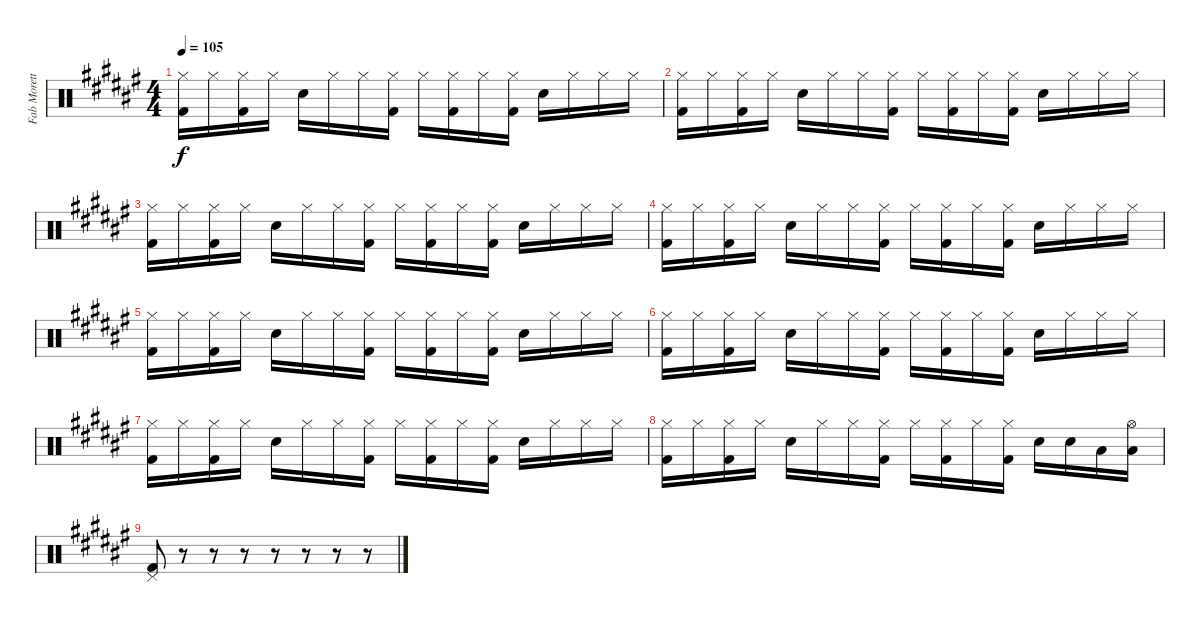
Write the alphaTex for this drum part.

\track ("Fab Moretti - Drums" "Fab Morett") {instrument percussion}
\staff {score}
\articulation defaults
\ts (4 4)
\tempo 105
\clef neutral
\ks f#
("Hi-Hat (closed)" "Kick (hit) 2").16{dy f} "Hi-Hat (closed)".16 ("Hi-Hat (closed)" "Kick (hit) 2").16 "Hi-Hat (closed)".16 "Snare (hit) 2".16 "Hi-Hat (closed)".16 "Hi-Hat (closed)".16 ("Hi-Hat (closed)" "Kick (hit) 2").16 "Hi-Hat (closed)".16 ("Hi-Hat (closed)" "Kick (hit) 2").16 "Hi-Hat (closed)".16 ("Hi-Hat (closed)" "Kick (hit) 2").16 "Snare (hit) 2".16 "Hi-Hat (closed)".16 "Hi-Hat (closed)".16 "Hi-Hat (closed)".16 |
("Hi-Hat (closed)" "Kick (hit) 2").16 "Hi-Hat (closed)".16 ("Hi-Hat (closed)" "Kick (hit) 2").16 "Hi-Hat (closed)".16 "Snare (hit) 2".16 "Hi-Hat (closed)".16 "Hi-Hat (closed)".16 ("Hi-Hat (closed)" "Kick (hit) 2").16 "Hi-Hat (closed)".16 ("Hi-Hat (closed)" "Kick (hit) 2").16 "Hi-Hat (closed)".16 ("Hi-Hat (closed)" "Kick (hit) 2").16 "Snare (hit) 2".16 "Hi-Hat (closed)".16 "Hi-Hat (closed)".16 "Hi-Hat (closed)".16 |
("Hi-Hat (closed)" "Kick (hit) 2").16 "Hi-Hat (closed)".16 ("Hi-Hat (closed)" "Kick (hit) 2").16 "Hi-Hat (closed)".16 "Snare (hit) 2".16 "Hi-Hat (closed)".16 "Hi-Hat (closed)".16 ("Hi-Hat (closed)" "Kick (hit) 2").16 "Hi-Hat (closed)".16 ("Hi-Hat (closed)" "Kick (hit) 2").16 "Hi-Hat (closed)".16 ("Hi-Hat (closed)" "Kick (hit) 2").16 "Snare (hit) 2".16 "Hi-Hat (closed)".16 "Hi-Hat (closed)".16 "Hi-Hat (closed)".16 |
("Hi-Hat (closed)" "Kick (hit) 2").16 "Hi-Hat (closed)".16 ("Hi-Hat (closed)" "Kick (hit) 2").16 "Hi-Hat (closed)".16 "Snare (hit) 2".16 "Hi-Hat (closed)".16 "Hi-Hat (closed)".16 ("Hi-Hat (closed)" "Kick (hit) 2").16 "Hi-Hat (closed)".16 ("Hi-Hat (closed)" "Kick (hit) 2").16 "Hi-Hat (closed)".16 ("Hi-Hat (closed)" "Kick (hit) 2").16 "Snare (hit) 2".16 "Hi-Hat (closed)".16 "Hi-Hat (closed)".16 "Hi-Hat (closed)".16 |
("Hi-Hat (closed)" "Kick (hit) 2").16 "Hi-Hat (closed)".16 ("Hi-Hat (closed)" "Kick (hit) 2").16 "Hi-Hat (closed)".16 "Snare (hit) 2".16 "Hi-Hat (closed)".16 "Hi-Hat (closed)".16 ("Hi-Hat (closed)" "Kick (hit) 2").16 "Hi-Hat (closed)".16 ("Hi-Hat (closed)" "Kick (hit) 2").16 "Hi-Hat (closed)".16 ("Hi-Hat (closed)" "Kick (hit) 2").16 "Snare (hit) 2".16 "Hi-Hat (closed)".16 "Hi-Hat (closed)".16 "Hi-Hat (closed)".16 |
("Hi-Hat (closed)" "Kick (hit) 2").16 "Hi-Hat (closed)".16 ("Hi-Hat (closed)" "Kick (hit) 2").16 "Hi-Hat (closed)".16 "Snare (hit) 2".16 "Hi-Hat (closed)".16 "Hi-Hat (closed)".16 ("Hi-Hat (closed)" "Kick (hit) 2").16 "Hi-Hat (closed)".16 ("Hi-Hat (closed)" "Kick (hit) 2").16 "Hi-Hat (closed)".16 ("Hi-Hat (closed)" "Kick (hit) 2").16 "Snare (hit) 2".16 "Hi-Hat (closed)".16 "Hi-Hat (closed)".16 "Hi-Hat (closed)".16 |
("Hi-Hat (closed)" "Kick (hit) 2").16 "Hi-Hat (closed)".16 ("Hi-Hat (closed)" "Kick (hit) 2").16 "Hi-Hat (closed)".16 "Snare (hit) 2".16 "Hi-Hat (closed)".16 "Hi-Hat (closed)".16 ("Hi-Hat (closed)" "Kick (hit) 2").16 "Hi-Hat (closed)".16 ("Hi-Hat (closed)" "Kick (hit) 2").16 "Hi-Hat (closed)".16 ("Hi-Hat (closed)" "Kick (hit) 2").16 "Snare (hit) 2".16 "Hi-Hat (closed)".16 "Hi-Hat (closed)".16 "Hi-Hat (closed)".16 |
("Hi-Hat (closed)" "Kick (hit) 2").16 "Hi-Hat (closed)".16 ("Hi-Hat (closed)" "Kick (hit) 2").16 "Hi-Hat (closed)".16 "Snare (hit) 2".16 "Hi-Hat (closed)".16 "Hi-Hat (closed)".16 ("Hi-Hat (closed)" "Kick (hit) 2").16 "Hi-Hat (closed)".16 ("Hi-Hat (closed)" "Kick (hit) 2").16 "Hi-Hat (closed)".16 ("Hi-Hat (closed)" "Kick (hit) 2").16 "Snare (hit) 2".16 "Snare (hit) 2".16 "Low Tom (hit)".16 ("Hi-Hat (open)" "Low Tom (hit)").16 |
("Pedal Hi-Hat (hit)" "Kick (hit) 2").8 r.8 r.8 r.8 r.8 r.8 r.8 r.8
